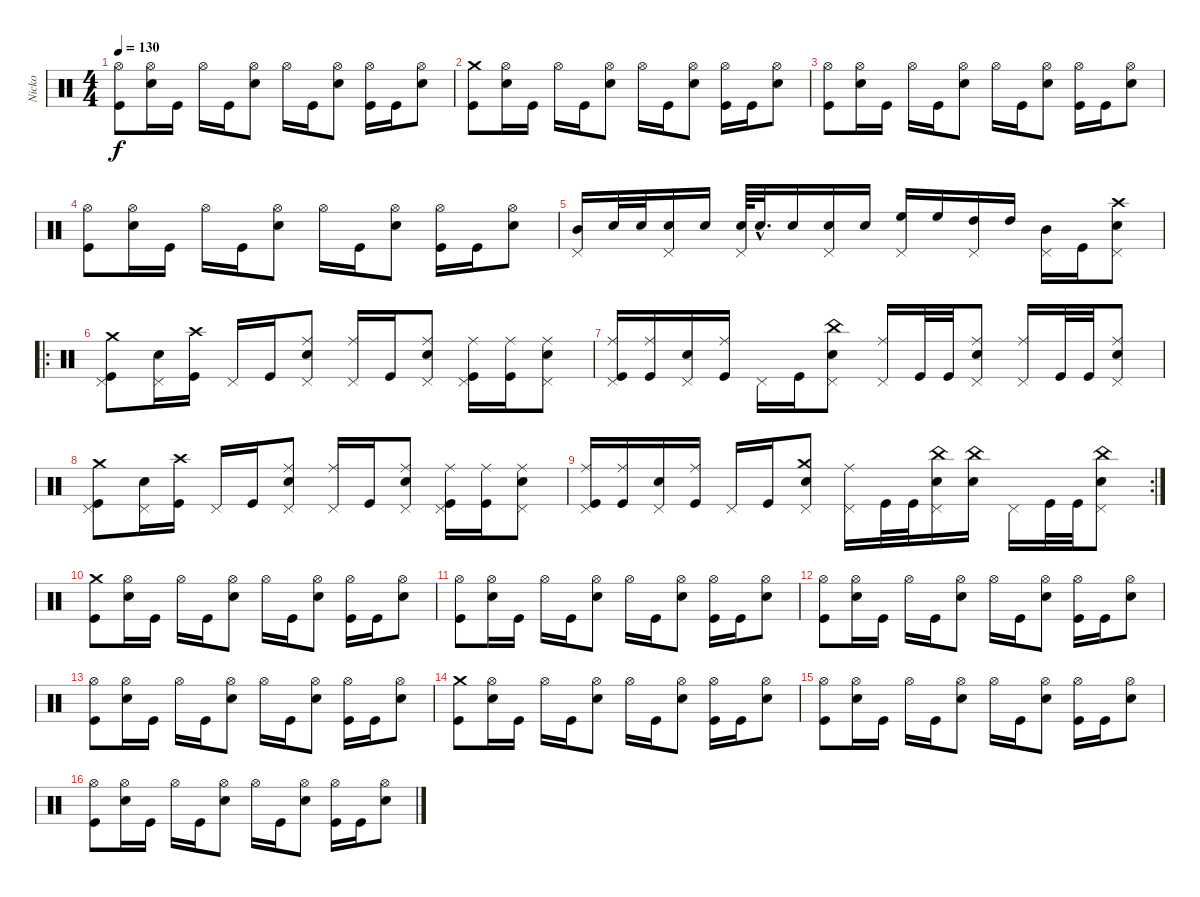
\track ("Nicko" "Nicko") {instrument percussion}
\staff {score}
\articulation defaults
\ts (4 4)
\tempo 130
\clef neutral
\ks c
("Hi-Hat (open)" "Kick (hit)").8{dy f} ("Hi-Hat (open)" "Snare (hit) 2").16 "Kick (hit)".16 "Hi-Hat (open)".16 "Kick (hit)".16 ("Hi-Hat (open)" "Snare (hit) 2").8 "Hi-Hat (open)".16 "Kick (hit)".16 ("Hi-Hat (open)" "Snare (hit) 2").8 ("Hi-Hat (open)" "Kick (hit)").16 "Kick (hit)".16 ("Hi-Hat (open)" "Snare (hit) 2").8 |
("Crash medium (hit)" "Kick (hit)").8 ("Hi-Hat (open)" "Snare (hit) 2").16 "Kick (hit)".16 "Hi-Hat (open)".16 "Kick (hit)".16 ("Hi-Hat (open)" "Snare (hit) 2").8 "Hi-Hat (open)".16 "Kick (hit)".16 ("Hi-Hat (open)" "Snare (hit) 2").8 ("Hi-Hat (open)" "Kick (hit)").16 "Kick (hit)".16 ("Hi-Hat (open)" "Snare (hit) 2").8 |
("Hi-Hat (open)" "Kick (hit)").8 ("Hi-Hat (open)" "Snare (hit) 2").16 "Kick (hit)".16 "Hi-Hat (open)".16 "Kick (hit)".16 ("Hi-Hat (open)" "Snare (hit) 2").8 "Hi-Hat (open)".16 "Kick (hit)".16 ("Hi-Hat (open)" "Snare (hit) 2").8 ("Hi-Hat (open)" "Kick (hit)").16 "Kick (hit)".16 ("Hi-Hat (open)" "Snare (hit) 2").8 |
("Hi-Hat (open)" "Kick (hit)").8 ("Hi-Hat (open)" "Snare (hit) 2").16 "Kick (hit)".16 "Hi-Hat (open)".16 "Kick (hit)".16 ("Hi-Hat (open)" "Snare (hit) 2").8 "Hi-Hat (open)".16 "Kick (hit)".16 ("Hi-Hat (open)" "Snare (hit) 2").8 ("Hi-Hat (open)" "Kick (hit)").16 "Kick (hit)".16 ("Hi-Hat (open)" "Snare (hit) 2").8 |
("Mid Tom (hit)" "Pedal Hi-Hat (hit)").16 "Snare (hit) 2".32 "Snare (hit) 2".32 ("Snare (hit) 2" "Pedal Hi-Hat (hit)").16 "Snare (hit) 2".16 ("Snare (hit) 2" "Pedal Hi-Hat (hit)").64 "Snare (hit) 2"{hac}.32{d} "Snare (hit) 2".16 ("Snare (hit) 2" "Pedal Hi-Hat (hit)").16 "Snare (hit) 2".16 ("High Floor Tom (hit)" "Pedal Hi-Hat (hit)").16 "High Floor Tom (hit)".16 ("High Tom (hit)" "Pedal Hi-Hat (hit)").16 "High Tom (hit)".16 ("Mid Tom (hit)" "Pedal Hi-Hat (hit)").16 "Kick (hit)".16 ("Crash high (hit)" "Snare (hit) 2" "Pedal Hi-Hat (hit)").8 |
\ro
("Crash medium (hit)" "Pedal Hi-Hat (hit)" "Kick (hit)").8 ("Snare (hit) 2" "Pedal Hi-Hat (hit)").16 ("Crash high (hit)" "Kick (hit)").16 "Pedal Hi-Hat (hit)".16 "Kick (hit)".16 ("Ride (middle)" "Snare (hit) 2" "Pedal Hi-Hat (hit)").8 ("Ride (middle)" "Pedal Hi-Hat (hit)").16 "Kick (hit)".16 ("Ride (middle)" "Snare (hit) 2" "Pedal Hi-Hat (hit)").8 ("Ride (middle)" "Pedal Hi-Hat (hit)" "Kick (hit)").16 ("Ride (middle)" "Kick (hit)").16 ("Ride (middle)" "Snare (hit) 2" "Pedal Hi-Hat (hit)").8 |
("Ride (middle)" "Pedal Hi-Hat (hit)" "Kick (hit)").16 ("Ride (middle)" "Kick (hit)").16 ("Snare (hit) 2" "Pedal Hi-Hat (hit)").16 ("Ride (middle)" "Kick (hit)").16 "Pedal Hi-Hat (hit)".16 "Kick (hit)".16 ("China (hit)" "Snare (hit) 2" "Pedal Hi-Hat (hit)").8 ("Ride (middle)" "Pedal Hi-Hat (hit)").16 "Kick (hit)".32 "Kick (hit)".32 ("Ride (middle)" "Snare (hit) 2" "Pedal Hi-Hat (hit)").8 ("Ride (middle)" "Pedal Hi-Hat (hit)").16 "Kick (hit)".32 "Kick (hit)".32 ("Ride (middle)" "Snare (hit) 2" "Pedal Hi-Hat (hit)").8 |
("Crash medium (hit)" "Pedal Hi-Hat (hit)" "Kick (hit)").8 ("Snare (hit) 2" "Pedal Hi-Hat (hit)").16 ("Crash high (hit)" "Kick (hit)").16 "Pedal Hi-Hat (hit)".16 "Kick (hit)".16 ("Ride (middle)" "Snare (hit) 2" "Pedal Hi-Hat (hit)").8 ("Ride (middle)" "Pedal Hi-Hat (hit)").16 "Kick (hit)".16 ("Ride (middle)" "Snare (hit) 2" "Pedal Hi-Hat (hit)").8 ("Ride (middle)" "Pedal Hi-Hat (hit)" "Kick (hit)").16 ("Ride (middle)" "Kick (hit)").16 ("Ride (middle)" "Snare (hit) 2" "Pedal Hi-Hat (hit)").8 |
\rc 2
("Ride (middle)" "Pedal Hi-Hat (hit)" "Kick (hit)").16 ("Ride (middle)" "Kick (hit)").16 ("Snare (hit) 2" "Pedal Hi-Hat (hit)").16 ("Ride (middle)" "Kick (hit)").16 "Pedal Hi-Hat (hit)".16 "Kick (hit)".16 ("Crash medium (hit)" "Snare (hit) 2" "Pedal Hi-Hat (hit)").8 ("Ride (middle)" "Pedal Hi-Hat (hit)").16 "Kick (hit)".32 "Kick (hit)".32 ("China (hit)" "Snare (hit) 2" "Pedal Hi-Hat (hit)").16 ("China (hit)" "Snare (hit) 2").16 "Pedal Hi-Hat (hit)".16 "Kick (hit)".32 "Kick (hit)".32 ("China (hit)" "Snare (hit) 2" "Pedal Hi-Hat (hit)").8 |
("Crash medium (hit)" "Kick (hit)").8 ("Hi-Hat (open)" "Snare (hit) 2").16 "Kick (hit)".16 "Hi-Hat (open)".16 "Kick (hit)".16 ("Hi-Hat (open)" "Snare (hit) 2").8 "Hi-Hat (open)".16 "Kick (hit)".16 ("Hi-Hat (open)" "Snare (hit) 2").8 ("Hi-Hat (open)" "Kick (hit)").16 "Kick (hit)".16 ("Hi-Hat (open)" "Snare (hit) 2").8 |
("Hi-Hat (open)" "Kick (hit)").8 ("Hi-Hat (open)" "Snare (hit) 2").16 "Kick (hit)".16 "Hi-Hat (open)".16 "Kick (hit)".16 ("Hi-Hat (open)" "Snare (hit) 2").8 "Hi-Hat (open)".16 "Kick (hit)".16 ("Hi-Hat (open)" "Snare (hit) 2").8 ("Hi-Hat (open)" "Kick (hit)").16 "Kick (hit)".16 ("Hi-Hat (open)" "Snare (hit) 2").8 |
("Hi-Hat (open)" "Kick (hit)").8 ("Hi-Hat (open)" "Snare (hit) 2").16 "Kick (hit)".16 "Hi-Hat (open)".16 "Kick (hit)".16 ("Hi-Hat (open)" "Snare (hit) 2").8 "Hi-Hat (open)".16 "Kick (hit)".16 ("Hi-Hat (open)" "Snare (hit) 2").8 ("Hi-Hat (open)" "Kick (hit)").16 "Kick (hit)".16 ("Hi-Hat (open)" "Snare (hit) 2").8 |
("Hi-Hat (open)" "Kick (hit)").8 ("Hi-Hat (open)" "Snare (hit) 2").16 "Kick (hit)".16 "Hi-Hat (open)".16 "Kick (hit)".16 ("Hi-Hat (open)" "Snare (hit) 2").8 "Hi-Hat (open)".16 "Kick (hit)".16 ("Hi-Hat (open)" "Snare (hit) 2").8 ("Hi-Hat (open)" "Kick (hit)").16 "Kick (hit)".16 ("Hi-Hat (open)" "Snare (hit) 2").8 |
("Crash medium (hit)" "Kick (hit)").8 ("Hi-Hat (open)" "Snare (hit) 2").16 "Kick (hit)".16 "Hi-Hat (open)".16 "Kick (hit)".16 ("Hi-Hat (open)" "Snare (hit) 2").8 "Hi-Hat (open)".16 "Kick (hit)".16 ("Hi-Hat (open)" "Snare (hit) 2").8 ("Hi-Hat (open)" "Kick (hit)").16 "Kick (hit)".16 ("Hi-Hat (open)" "Snare (hit) 2").8 |
("Hi-Hat (open)" "Kick (hit)").8 ("Hi-Hat (open)" "Snare (hit) 2").16 "Kick (hit)".16 "Hi-Hat (open)".16 "Kick (hit)".16 ("Hi-Hat (open)" "Snare (hit) 2").8 "Hi-Hat (open)".16 "Kick (hit)".16 ("Hi-Hat (open)" "Snare (hit) 2").8 ("Hi-Hat (open)" "Kick (hit)").16 "Kick (hit)".16 ("Hi-Hat (open)" "Snare (hit) 2").8 |
("Hi-Hat (open)" "Kick (hit)").8 ("Hi-Hat (open)" "Snare (hit) 2").16 "Kick (hit)".16 "Hi-Hat (open)".16 "Kick (hit)".16 ("Hi-Hat (open)" "Snare (hit) 2").8 "Hi-Hat (open)".16 "Kick (hit)".16 ("Hi-Hat (open)" "Snare (hit) 2").8 ("Hi-Hat (open)" "Kick (hit)").16 "Kick (hit)".16 ("Hi-Hat (open)" "Snare (hit) 2").8
